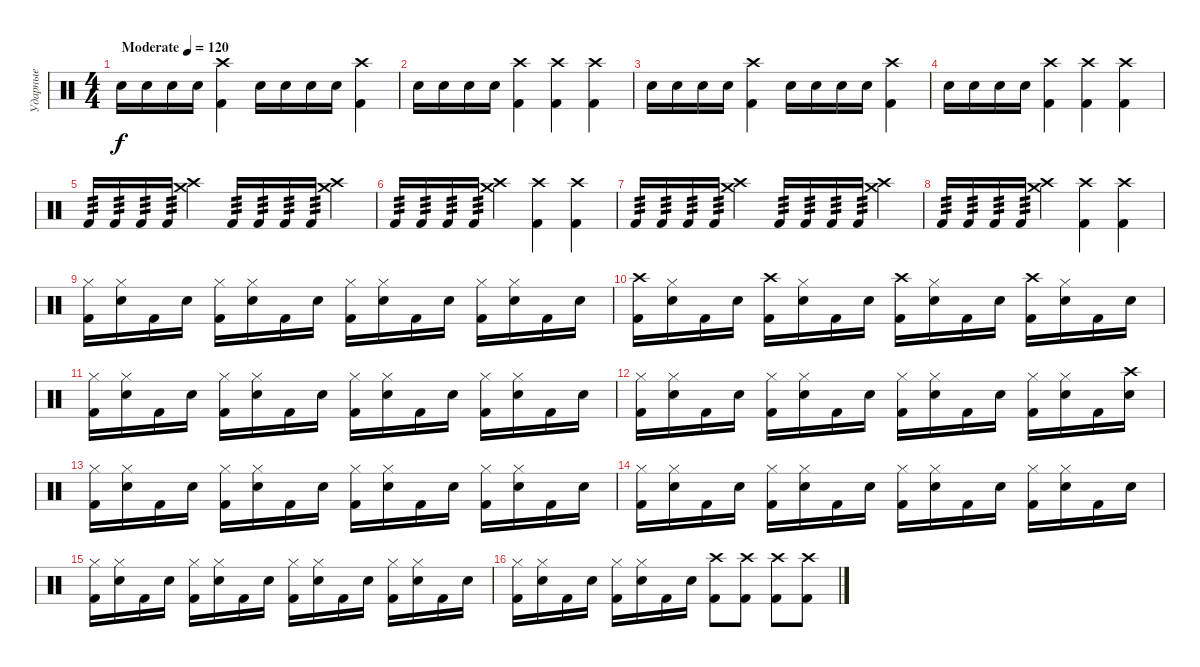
\track ("Ударные" "Ударные") {instrument percussion}
\staff {score}
\articulation defaults
\ts (4 4)
\tempo (120 "Moderate")
\clef neutral
\ks c "Electric Snare (hit)".16{dy f} "Electric Snare (hit)".16 "Electric Snare (hit)".16 "Electric Snare (hit)".16
("Crash high (hit)" "Kick (hit) 2").4 "Electric Snare (hit)".16 "Electric Snare (hit)".16 "Electric Snare (hit)".16 "Electric Snare (hit)".16 ("Crash high (hit)" "Kick (hit) 2").4 |
"Electric Snare (hit)".16 "Electric Snare (hit)".16 "Electric Snare (hit)".16 "Electric Snare (hit)".16 ("Crash high (hit)" "Kick (hit) 2").4 ("Crash high (hit)" "Kick (hit) 2").4 ("Kick (hit) 2" "Crash high (hit)").4 |
"Electric Snare (hit)".16 "Electric Snare (hit)".16 "Electric Snare (hit)".16 "Electric Snare (hit)".16 ("Crash high (hit)" "Kick (hit) 2").4 "Electric Snare (hit)".16 "Electric Snare (hit)".16 "Electric Snare (hit)".16 "Electric Snare (hit)".16 ("Crash high (hit)" "Kick (hit) 2").4 |
"Electric Snare (hit)".16 "Electric Snare (hit)".16 "Electric Snare (hit)".16 "Electric Snare (hit)".16 ("Crash high (hit)" "Kick (hit) 2").4 ("Crash high (hit)" "Kick (hit) 2").4 ("Kick (hit) 2" "Crash high (hit)").4 |
"Kick (hit) 2".16{tp 3} "Kick (hit) 2".16{tp 3} "Kick (hit) 2".16{tp 3} "Kick (hit) 2".16{tp 3} ("Crash medium (hit)" "Crash high (hit)").4 "Kick (hit) 2".16{tp 3} "Kick (hit) 2".16{tp 3} "Kick (hit) 2".16{tp 3} "Kick (hit) 2".16{tp 3} ("Crash medium (hit)" "Crash high (hit)").4 |
"Kick (hit) 2".16{tp 3} "Kick (hit) 2".16{tp 3} "Kick (hit) 2".16{tp 3} "Kick (hit) 2".16{tp 3} ("Crash medium (hit)" "Crash high (hit)").4 ("Crash high (hit)" "Kick (hit) 2").4 ("Kick (hit) 2" "Crash high (hit)").4 |
"Kick (hit) 2".16{tp 3} "Kick (hit) 2".16{tp 3} "Kick (hit) 2".16{tp 3} "Kick (hit) 2".16{tp 3} ("Crash medium (hit)" "Crash high (hit)").4 "Kick (hit) 2".16{tp 3} "Kick (hit) 2".16{tp 3} "Kick (hit) 2".16{tp 3} "Kick (hit) 2".16{tp 3} ("Crash medium (hit)" "Crash high (hit)").4 |
"Kick (hit) 2".16{tp 3} "Kick (hit) 2".16{tp 3} "Kick (hit) 2".16{tp 3} "Kick (hit) 2".16{tp 3} ("Crash medium (hit)" "Crash high (hit)").4 ("Crash high (hit)" "Kick (hit) 2").4 ("Kick (hit) 2" "Crash high (hit)").4 |
("Hi-Hat (closed)" "Kick (hit) 2").16 ("Hi-Hat (closed)" "Electric Snare (hit)").16 "Kick (hit) 2".16 "Electric Snare (hit)".16 ("Hi-Hat (closed)" "Kick (hit) 2").16 ("Hi-Hat (closed)" "Electric Snare (hit)").16 "Kick (hit) 2".16 "Electric Snare (hit)".16 ("Hi-Hat (closed)" "Kick (hit) 2").16 ("Hi-Hat (closed)" "Electric Snare (hit)").16 "Kick (hit) 2".16 "Electric Snare (hit)".16 ("Hi-Hat (closed)" "Kick (hit) 2").16 ("Hi-Hat (closed)" "Electric Snare (hit)").16 "Kick (hit) 2".16 "Electric Snare (hit)".16 |
("Crash high (hit)" "Kick (hit) 2").16 ("Hi-Hat (closed)" "Electric Snare (hit)").16 "Kick (hit) 2".16 "Electric Snare (hit)".16 ("Crash high (hit)" "Kick (hit) 2").16 ("Hi-Hat (closed)" "Electric Snare (hit)").16 "Kick (hit) 2".16 "Electric Snare (hit)".16 ("Crash high (hit)" "Kick (hit) 2").16 ("Hi-Hat (closed)" "Electric Snare (hit)").16 "Kick (hit) 2".16 "Electric Snare (hit)".16 ("Crash high (hit)" "Kick (hit) 2").16 ("Hi-Hat (closed)" "Electric Snare (hit)").16 "Kick (hit) 2".16 "Electric Snare (hit)".16 |
("Hi-Hat (closed)" "Kick (hit) 2").16 ("Hi-Hat (closed)" "Electric Snare (hit)").16 "Kick (hit) 2".16 "Electric Snare (hit)".16 ("Hi-Hat (closed)" "Kick (hit) 2").16 ("Hi-Hat (closed)" "Electric Snare (hit)").16 "Kick (hit) 2".16 "Electric Snare (hit)".16 ("Hi-Hat (closed)" "Kick (hit) 2").16 ("Hi-Hat (closed)" "Electric Snare (hit)").16 "Kick (hit) 2".16 "Electric Snare (hit)".16 ("Hi-Hat (closed)" "Kick (hit) 2").16 ("Hi-Hat (closed)" "Electric Snare (hit)").16 "Kick (hit) 2".16 "Electric Snare (hit)".16 |
("Hi-Hat (closed)" "Kick (hit) 2").16 ("Hi-Hat (closed)" "Electric Snare (hit)").16 "Kick (hit) 2".16 "Electric Snare (hit)".16 ("Hi-Hat (closed)" "Kick (hit) 2").16 ("Hi-Hat (closed)" "Electric Snare (hit)").16 "Kick (hit) 2".16 "Electric Snare (hit)".16 ("Hi-Hat (closed)" "Kick (hit) 2").16 ("Hi-Hat (closed)" "Electric Snare (hit)").16 "Kick (hit) 2".16 "Electric Snare (hit)".16 ("Hi-Hat (closed)" "Kick (hit) 2").16 ("Hi-Hat (closed)" "Electric Snare (hit)").16 "Kick (hit) 2".16 ("Crash high (hit)" "Electric Snare (hit)").16 |
("Hi-Hat (closed)" "Kick (hit) 2").16 ("Hi-Hat (closed)" "Electric Snare (hit)").16 "Kick (hit) 2".16 "Electric Snare (hit)".16 ("Hi-Hat (closed)" "Kick (hit) 2").16 ("Hi-Hat (closed)" "Electric Snare (hit)").16 "Kick (hit) 2".16 "Electric Snare (hit)".16 ("Hi-Hat (closed)" "Kick (hit) 2").16 ("Hi-Hat (closed)" "Electric Snare (hit)").16 "Kick (hit) 2".16 "Electric Snare (hit)".16 ("Hi-Hat (closed)" "Kick (hit) 2").16 ("Hi-Hat (closed)" "Electric Snare (hit)").16 "Kick (hit) 2".16 "Electric Snare (hit)".16 |
("Hi-Hat (closed)" "Kick (hit) 2").16 ("Hi-Hat (closed)" "Electric Snare (hit)").16 "Kick (hit) 2".16 "Electric Snare (hit)".16 ("Hi-Hat (closed)" "Kick (hit) 2").16 ("Hi-Hat (closed)" "Electric Snare (hit)").16 "Kick (hit) 2".16 "Electric Snare (hit)".16 ("Hi-Hat (closed)" "Kick (hit) 2").16 ("Hi-Hat (closed)" "Electric Snare (hit)").16 "Kick (hit) 2".16 "Electric Snare (hit)".16 ("Hi-Hat (closed)" "Kick (hit) 2").16 ("Hi-Hat (closed)" "Electric Snare (hit)").16 "Kick (hit) 2".16 "Electric Snare (hit)".16 |
("Hi-Hat (closed)" "Kick (hit) 2").16 ("Hi-Hat (closed)" "Electric Snare (hit)").16 "Kick (hit) 2".16 "Electric Snare (hit)".16 ("Hi-Hat (closed)" "Kick (hit) 2").16 ("Hi-Hat (closed)" "Electric Snare (hit)").16 "Kick (hit) 2".16 "Electric Snare (hit)".16 ("Hi-Hat (closed)" "Kick (hit) 2").16 ("Hi-Hat (closed)" "Electric Snare (hit)").16 "Kick (hit) 2".16 "Electric Snare (hit)".16 ("Hi-Hat (closed)" "Kick (hit) 2").16 ("Hi-Hat (closed)" "Electric Snare (hit)").16 "Kick (hit) 2".16 "Electric Snare (hit)".16 |
("Hi-Hat (closed)" "Kick (hit) 2").16 ("Hi-Hat (closed)" "Electric Snare (hit)").16 "Kick (hit) 2".16 "Electric Snare (hit)".16 ("Hi-Hat (closed)" "Kick (hit) 2").16 ("Hi-Hat (closed)" "Electric Snare (hit)").16 "Kick (hit) 2".16 "Electric Snare (hit)".16 ("Crash high (hit)" "Kick (hit) 2").8 ("Crash high (hit)" "Kick (hit) 2").8 ("Crash high (hit)" "Kick (hit) 2").8 ("Crash high (hit)" "Kick (hit) 2").8
